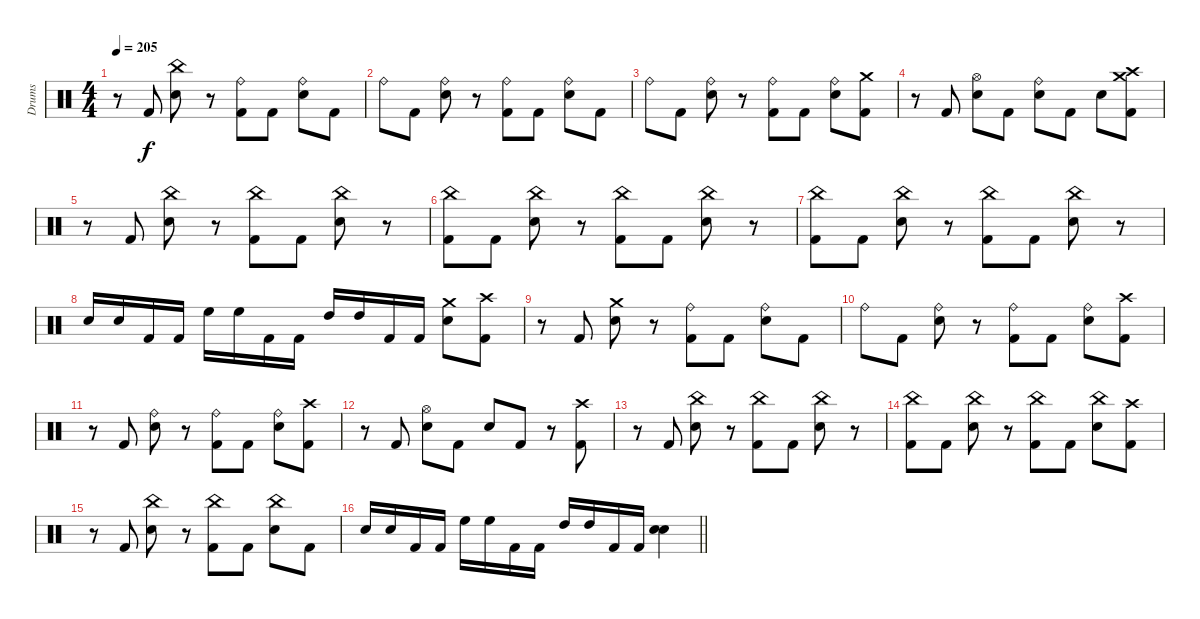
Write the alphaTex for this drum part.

\track ("Drums" "Drums") {instrument percussion}
\staff {score}
\articulation defaults
\ts (4 4)
\tempo 205
\clef neutral
\ks c
r.8{dy f} "Kick (hit) 2".8 ("China (hit)" "Electric Snare (hit)").8 r.8 ("Ride (bell)" "Kick (hit) 2").8 "Kick (hit) 2".8 ("Ride (bell)" "Electric Snare (hit)").8 "Kick (hit) 2".8 |
"Ride (bell)".8 "Kick (hit) 2".8 ("Ride (bell)" "Electric Snare (hit)").8 r.8 ("Ride (bell)" "Kick (hit) 2").8 "Kick (hit) 2".8 ("Ride (bell)" "Electric Snare (hit)").8 "Kick (hit) 2".8 |
"Ride (bell)".8 "Kick (hit) 2".8 ("Ride (bell)" "Electric Snare (hit)").8 r.8 ("Ride (bell)" "Kick (hit) 2").8 "Kick (hit) 2".8 ("Ride (bell)" "Electric Snare (hit)").8 ("Crash medium (hit)" "Kick (hit) 2").8 |
r.8 "Kick (hit) 2".8 ("Hi-Hat (open)" "Electric Snare (hit)").8 "Kick (hit) 2".8 ("Ride (bell)" "Electric Snare (hit)").8 "Kick (hit) 2".8 "Electric Snare (hit)".8 ("Crash medium (hit)" "Crash high (hit)" "Kick (hit) 2").8 |
r.8 "Kick (hit) 2".8 ("China (hit)" "Electric Snare (hit)").8 r.8 ("China (hit)" "Kick (hit) 2").8 "Kick (hit) 2".8 ("China (hit)" "Electric Snare (hit)").8 r.8 |
("China (hit)" "Kick (hit) 2").8 "Kick (hit) 2".8 ("China (hit)" "Electric Snare (hit)").8 r.8 ("China (hit)" "Kick (hit) 2").8 "Kick (hit) 2".8 ("China (hit)" "Electric Snare (hit)").8 r.8 |
("China (hit)" "Kick (hit) 2").8 "Kick (hit) 2".8 ("China (hit)" "Electric Snare (hit)").8 r.8 ("China (hit)" "Kick (hit) 2").8 "Kick (hit) 2".8 ("China (hit)" "Electric Snare (hit)").8 r.8 |
"Electric Snare (hit)".16 "Electric Snare (hit)".16 "Kick (hit) 2".16 "Kick (hit) 2".16 "High Floor Tom (hit)".16 "High Floor Tom (hit)".16 "Kick (hit) 2".16 "Kick (hit) 2".16 "High Tom (hit)".16 "High Tom (hit)".16 "Kick (hit) 2".16 "Kick (hit) 2".16 ("Crash medium (hit)" "Electric Snare (hit)").8 ("Crash high (hit)" "Kick (hit) 2").8 |
r.8 "Kick (hit) 2".8 ("Crash medium (hit)" "Electric Snare (hit)").8 r.8 ("Ride (bell)" "Kick (hit) 2").8 "Kick (hit) 2".8 ("Ride (bell)" "Electric Snare (hit)").8 "Kick (hit) 2".8 |
"Ride (bell)".8 "Kick (hit) 2".8 ("Ride (bell)" "Electric Snare (hit)").8 r.8 ("Ride (bell)" "Kick (hit) 2").8 "Kick (hit) 2".8 ("Ride (bell)" "Electric Snare (hit)").8 ("Crash high (hit)" "Kick (hit) 2").8 |
r.8 "Kick (hit) 2".8 ("Ride (bell)" "Electric Snare (hit)").8 r.8 ("Ride (bell)" "Kick (hit) 2").8 "Kick (hit) 2".8 ("Ride (bell)" "Electric Snare (hit)").8 ("Crash high (hit)" "Kick (hit) 2").8 |
r.8 "Kick (hit) 2".8 ("Hi-Hat (open)" "Electric Snare (hit)").8 "Kick (hit) 2".8 "Electric Snare (hit)".8 "Kick (hit) 2".8 r.8 ("Crash high (hit)" "Kick (hit) 2").8 |
r.8 "Kick (hit) 2".8 ("China (hit)" "Electric Snare (hit)").8 r.8 ("China (hit)" "Kick (hit) 2").8 "Kick (hit) 2".8 ("China (hit)" "Electric Snare (hit)").8 r.8 |
("China (hit)" "Kick (hit) 2").8 "Kick (hit) 2".8 ("China (hit)" "Electric Snare (hit)").8 r.8 ("China (hit)" "Kick (hit) 2").8 "Kick (hit) 2".8 ("China (hit)" "Electric Snare (hit)").8 ("Crash high (hit)" "Kick (hit) 2").8 |
r.8 "Kick (hit) 2".8 ("China (hit)" "Electric Snare (hit)").8 r.8 ("China (hit)" "Kick (hit) 2").8 "Kick (hit) 2".8 ("China (hit)" "Electric Snare (hit)").8 "Kick (hit) 2".8 |
\barLineRight lightlight "Electric Snare (hit)".16 "Electric Snare (hit)".16 "Kick (hit) 2".16 "Kick (hit) 2".16 "High Floor Tom (hit)".16 "High Floor Tom (hit)".16 "Kick (hit) 2".16 "Kick (hit) 2".16 "High Tom (hit)".16 "High Tom (hit)".16 "Kick (hit) 2".16 "Kick (hit) 2".16
("Electric Snare (hit)" "Electric Snare (hit)").4
